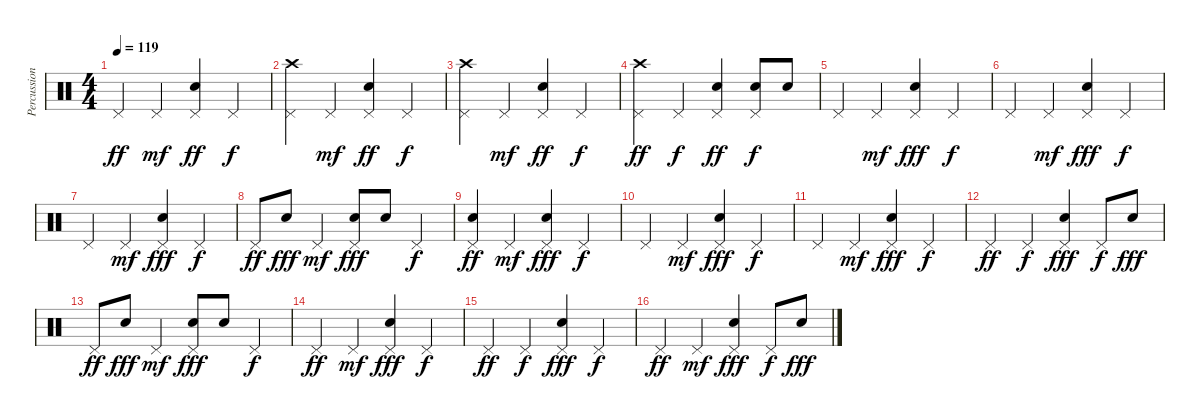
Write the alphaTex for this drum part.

\track ("Percussion" "Percussion") {instrument percussion}
\staff {score}
\articulation defaults
\ts (4 4)
\tempo 119
\clef neutral
\ks c "Pedal Hi-Hat (hit)".4{dy ff} "Pedal Hi-Hat (hit)".4{dy mf}
("Pedal Hi-Hat (hit)" "Snare (hit) 2").4{dy ff} "Pedal Hi-Hat (hit)".4{dy f} |
("Pedal Hi-Hat (hit)" "Crash high (hit)").4 "Pedal Hi-Hat (hit)".4{dy mf} ("Pedal Hi-Hat (hit)" "Snare (hit) 2").4{dy ff} "Pedal Hi-Hat (hit)".4{dy f} |
("Pedal Hi-Hat (hit)" "Crash high (hit)").4 "Pedal Hi-Hat (hit)".4{dy mf} ("Pedal Hi-Hat (hit)" "Snare (hit) 2").4{dy ff} "Pedal Hi-Hat (hit)".4{dy f} |
("Pedal Hi-Hat (hit)" "Crash high (hit)").4{dy ff} "Pedal Hi-Hat (hit)".4{dy f} ("Pedal Hi-Hat (hit)" "Snare (hit) 2").4{dy ff} ("Pedal Hi-Hat (hit)" "Snare (hit) 2").8{dy f} "Snare (hit) 2".8 |
"Pedal Hi-Hat (hit)".4 "Pedal Hi-Hat (hit)".4{dy mf} ("Pedal Hi-Hat (hit)" "Electric Snare (hit)").4{dy fff} "Pedal Hi-Hat (hit)".4{dy f} |
"Pedal Hi-Hat (hit)".4 "Pedal Hi-Hat (hit)".4{dy mf} ("Pedal Hi-Hat (hit)" "Electric Snare (hit)").4{dy fff} "Pedal Hi-Hat (hit)".4{dy f} |
"Pedal Hi-Hat (hit)".4 "Pedal Hi-Hat (hit)".4{dy mf} ("Pedal Hi-Hat (hit)" "Electric Snare (hit)").4{dy fff} "Pedal Hi-Hat (hit)".4{dy f} |
"Pedal Hi-Hat (hit)".8{dy ff} "Electric Snare (hit)".8{dy fff} "Pedal Hi-Hat (hit)".4{dy mf} ("Pedal Hi-Hat (hit)" "Electric Snare (hit)").8{dy fff} "Electric Snare (hit)".8 "Pedal Hi-Hat (hit)".4{dy f} |
("Pedal Hi-Hat (hit)" "Electric Snare (hit)").4{dy ff} "Pedal Hi-Hat (hit)".4{dy mf} ("Pedal Hi-Hat (hit)" "Electric Snare (hit)").4{dy fff} "Pedal Hi-Hat (hit)".4{dy f} |
"Pedal Hi-Hat (hit)".4 "Pedal Hi-Hat (hit)".4{dy mf} ("Pedal Hi-Hat (hit)" "Electric Snare (hit)").4{dy fff} "Pedal Hi-Hat (hit)".4{dy f} |
"Pedal Hi-Hat (hit)".4 "Pedal Hi-Hat (hit)".4{dy mf} ("Pedal Hi-Hat (hit)" "Electric Snare (hit)").4{dy fff} "Pedal Hi-Hat (hit)".4{dy f} |
"Pedal Hi-Hat (hit)".4{dy ff} "Pedal Hi-Hat (hit)".4{dy f} ("Pedal Hi-Hat (hit)" "Electric Snare (hit)").4{dy fff} "Pedal Hi-Hat (hit)".8{dy f} "Electric Snare (hit)".8{dy fff} |
"Pedal Hi-Hat (hit)".8{dy ff} "Electric Snare (hit)".8{dy fff} "Pedal Hi-Hat (hit)".4{dy mf} ("Pedal Hi-Hat (hit)" "Electric Snare (hit)").8{dy fff} "Electric Snare (hit)".8 "Pedal Hi-Hat (hit)".4{dy f} |
"Pedal Hi-Hat (hit)".4{dy ff} "Pedal Hi-Hat (hit)".4{dy mf} ("Pedal Hi-Hat (hit)" "Electric Snare (hit)").4{dy fff} "Pedal Hi-Hat (hit)".4{dy f} |
"Pedal Hi-Hat (hit)".4{dy ff} "Pedal Hi-Hat (hit)".4{dy f} ("Pedal Hi-Hat (hit)" "Electric Snare (hit)").4{dy fff} "Pedal Hi-Hat (hit)".4{dy f} |
"Pedal Hi-Hat (hit)".4{dy ff} "Pedal Hi-Hat (hit)".4{dy mf} ("Pedal Hi-Hat (hit)" "Electric Snare (hit)").4{dy fff} "Pedal Hi-Hat (hit)".8{dy f} "Electric Snare (hit)".8{dy fff}
